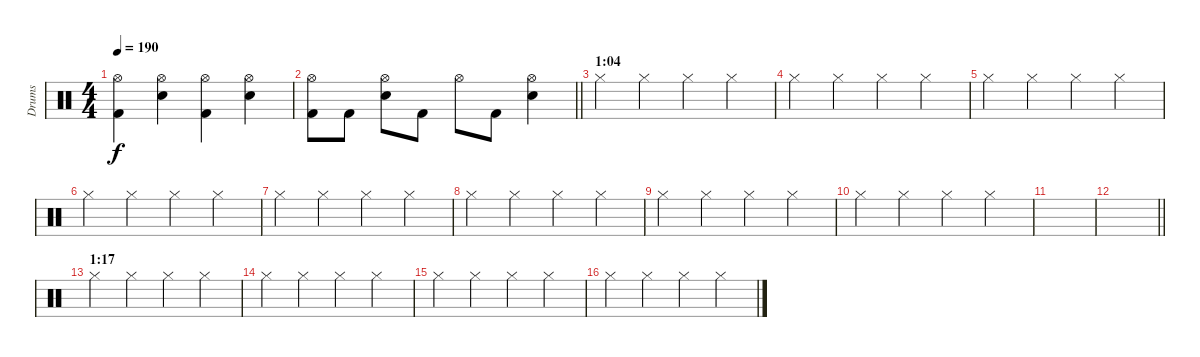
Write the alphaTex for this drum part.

\track ("Drums" "Drums") {instrument percussion}
\staff {score}
\articulation defaults
\ts (4 4)
\tempo 190
\clef neutral
\ks c
("Hi-Hat (open)" "Kick (hit) 2").4{dy f} ("Hi-Hat (open)" "Electric Snare (hit)").4 ("Hi-Hat (open)" "Kick (hit) 2").4 ("Hi-Hat (open)" "Electric Snare (hit)").4 |
\barLineRight lightlight
("Hi-Hat (open)" "Kick (hit) 2").8 "Kick (hit) 2".8 ("Hi-Hat (open)" "Electric Snare (hit)").8 "Kick (hit) 2".8 "Hi-Hat (open)".8 "Kick (hit) 2".8 ("Hi-Hat (open)" "Electric Snare (hit)").4 |
\section ("" "1:04")
"Hi-Hat (closed)".4 "Hi-Hat (closed)".4 "Hi-Hat (closed)".4 "Hi-Hat (closed)".4 |
"Hi-Hat (closed)".4 "Hi-Hat (closed)".4 "Hi-Hat (closed)".4 "Hi-Hat (closed)".4 |
"Hi-Hat (closed)".4 "Hi-Hat (closed)".4 "Hi-Hat (closed)".4 "Hi-Hat (closed)".4 |
"Hi-Hat (closed)".4 "Hi-Hat (closed)".4 "Hi-Hat (closed)".4 "Hi-Hat (closed)".4 |
"Hi-Hat (closed)".4 "Hi-Hat (closed)".4 "Hi-Hat (closed)".4 "Hi-Hat (closed)".4 |
"Hi-Hat (closed)".4 "Hi-Hat (closed)".4 "Hi-Hat (closed)".4 "Hi-Hat (closed)".4 |
"Hi-Hat (closed)".4 "Hi-Hat (closed)".4 "Hi-Hat (closed)".4 "Hi-Hat (closed)".4 |
"Hi-Hat (closed)".4 "Hi-Hat (closed)".4 "Hi-Hat (closed)".4 "Hi-Hat (closed)".4 |
|
\barLineRight lightlight
|
\section ("" "1:17")
"Hi-Hat (closed)".4 "Hi-Hat (closed)".4 "Hi-Hat (closed)".4 "Hi-Hat (closed)".4 |
"Hi-Hat (closed)".4 "Hi-Hat (closed)".4 "Hi-Hat (closed)".4 "Hi-Hat (closed)".4 |
"Hi-Hat (closed)".4 "Hi-Hat (closed)".4 "Hi-Hat (closed)".4 "Hi-Hat (closed)".4 |
"Hi-Hat (closed)".4 "Hi-Hat (closed)".4 "Hi-Hat (closed)".4 "Hi-Hat (closed)".4
